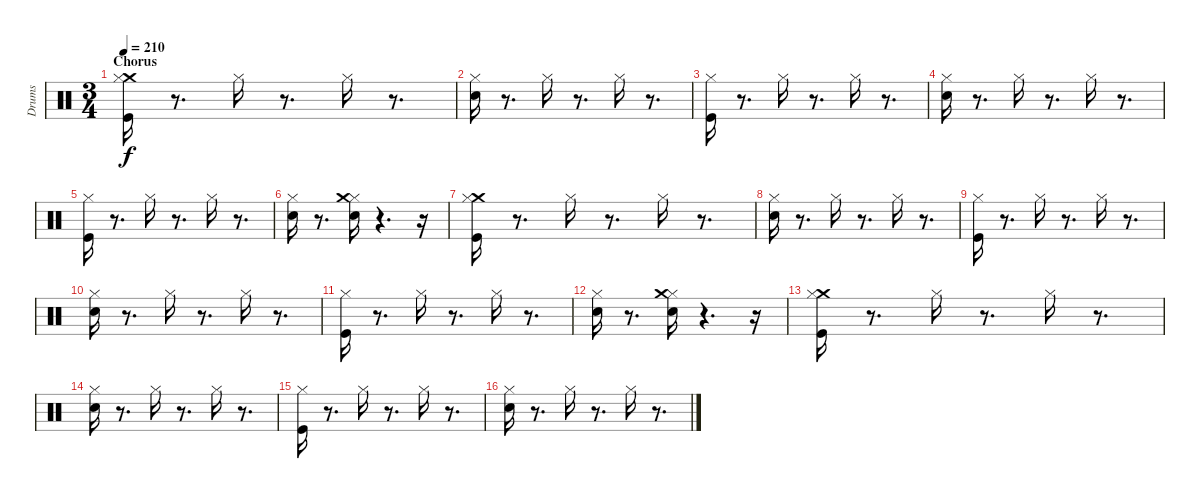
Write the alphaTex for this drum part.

\track ("Drums" "Drums") {instrument percussion}
\staff {score}
\articulation defaults
\ts (3 4)
\section ("" "Chorus")
\tempo 210
\clef neutral
\ks c
("Kick (hit)" "Crash medium (hit)" "Hi-Hat (closed)").16{dy f} r.8{d} "Hi-Hat (closed)".16 r.8{d} "Hi-Hat (closed)".16 r.8{d} |
("Hi-Hat (closed)" "Electric Snare (hit)").16 r.8{d} "Hi-Hat (closed)".16 r.8{d} "Hi-Hat (closed)".16 r.8{d} |
("Kick (hit)" "Hi-Hat (closed)").16 r.8{d} "Hi-Hat (closed)".16 r.8{d} "Hi-Hat (closed)".16 r.8{d} |
("Hi-Hat (closed)" "Electric Snare (hit)").16 r.8{d} "Hi-Hat (closed)".16 r.8{d} "Hi-Hat (closed)".16 r.8{d} |
("Kick (hit)" "Hi-Hat (closed)").16 r.8{d} "Hi-Hat (closed)".16 r.8{d} "Hi-Hat (closed)".16 r.8{d} |
("Hi-Hat (closed)" "Electric Snare (hit)").16 r.8{d} ("Hi-Hat (closed)" "Electric Snare (hit)" "Crash medium (hit)").16 r.4{d} r.16 |
("Kick (hit)" "Crash medium (hit)" "Hi-Hat (closed)").16 r.8{d} "Hi-Hat (closed)".16 r.8{d} "Hi-Hat (closed)".16 r.8{d} |
("Hi-Hat (closed)" "Electric Snare (hit)").16 r.8{d} "Hi-Hat (closed)".16 r.8{d} "Hi-Hat (closed)".16 r.8{d} |
("Kick (hit)" "Hi-Hat (closed)").16 r.8{d} "Hi-Hat (closed)".16 r.8{d} "Hi-Hat (closed)".16 r.8{d} |
("Hi-Hat (closed)" "Electric Snare (hit)").16 r.8{d} "Hi-Hat (closed)".16 r.8{d} "Hi-Hat (closed)".16 r.8{d} |
("Kick (hit)" "Hi-Hat (closed)").16 r.8{d} "Hi-Hat (closed)".16 r.8{d} "Hi-Hat (closed)".16 r.8{d} |
("Hi-Hat (closed)" "Electric Snare (hit)").16 r.8{d} ("Hi-Hat (closed)" "Electric Snare (hit)" "Crash medium (hit)").16 r.4{d} r.16 |
("Kick (hit)" "Crash medium (hit)" "Hi-Hat (closed)").16 r.8{d} "Hi-Hat (closed)".16 r.8{d} "Hi-Hat (closed)".16 r.8{d} |
("Hi-Hat (closed)" "Electric Snare (hit)").16 r.8{d} "Hi-Hat (closed)".16 r.8{d} "Hi-Hat (closed)".16 r.8{d} |
("Kick (hit)" "Hi-Hat (closed)").16 r.8{d} "Hi-Hat (closed)".16 r.8{d} "Hi-Hat (closed)".16 r.8{d} |
("Hi-Hat (closed)" "Electric Snare (hit)").16 r.8{d} "Hi-Hat (closed)".16 r.8{d} "Hi-Hat (closed)".16 r.8{d}
